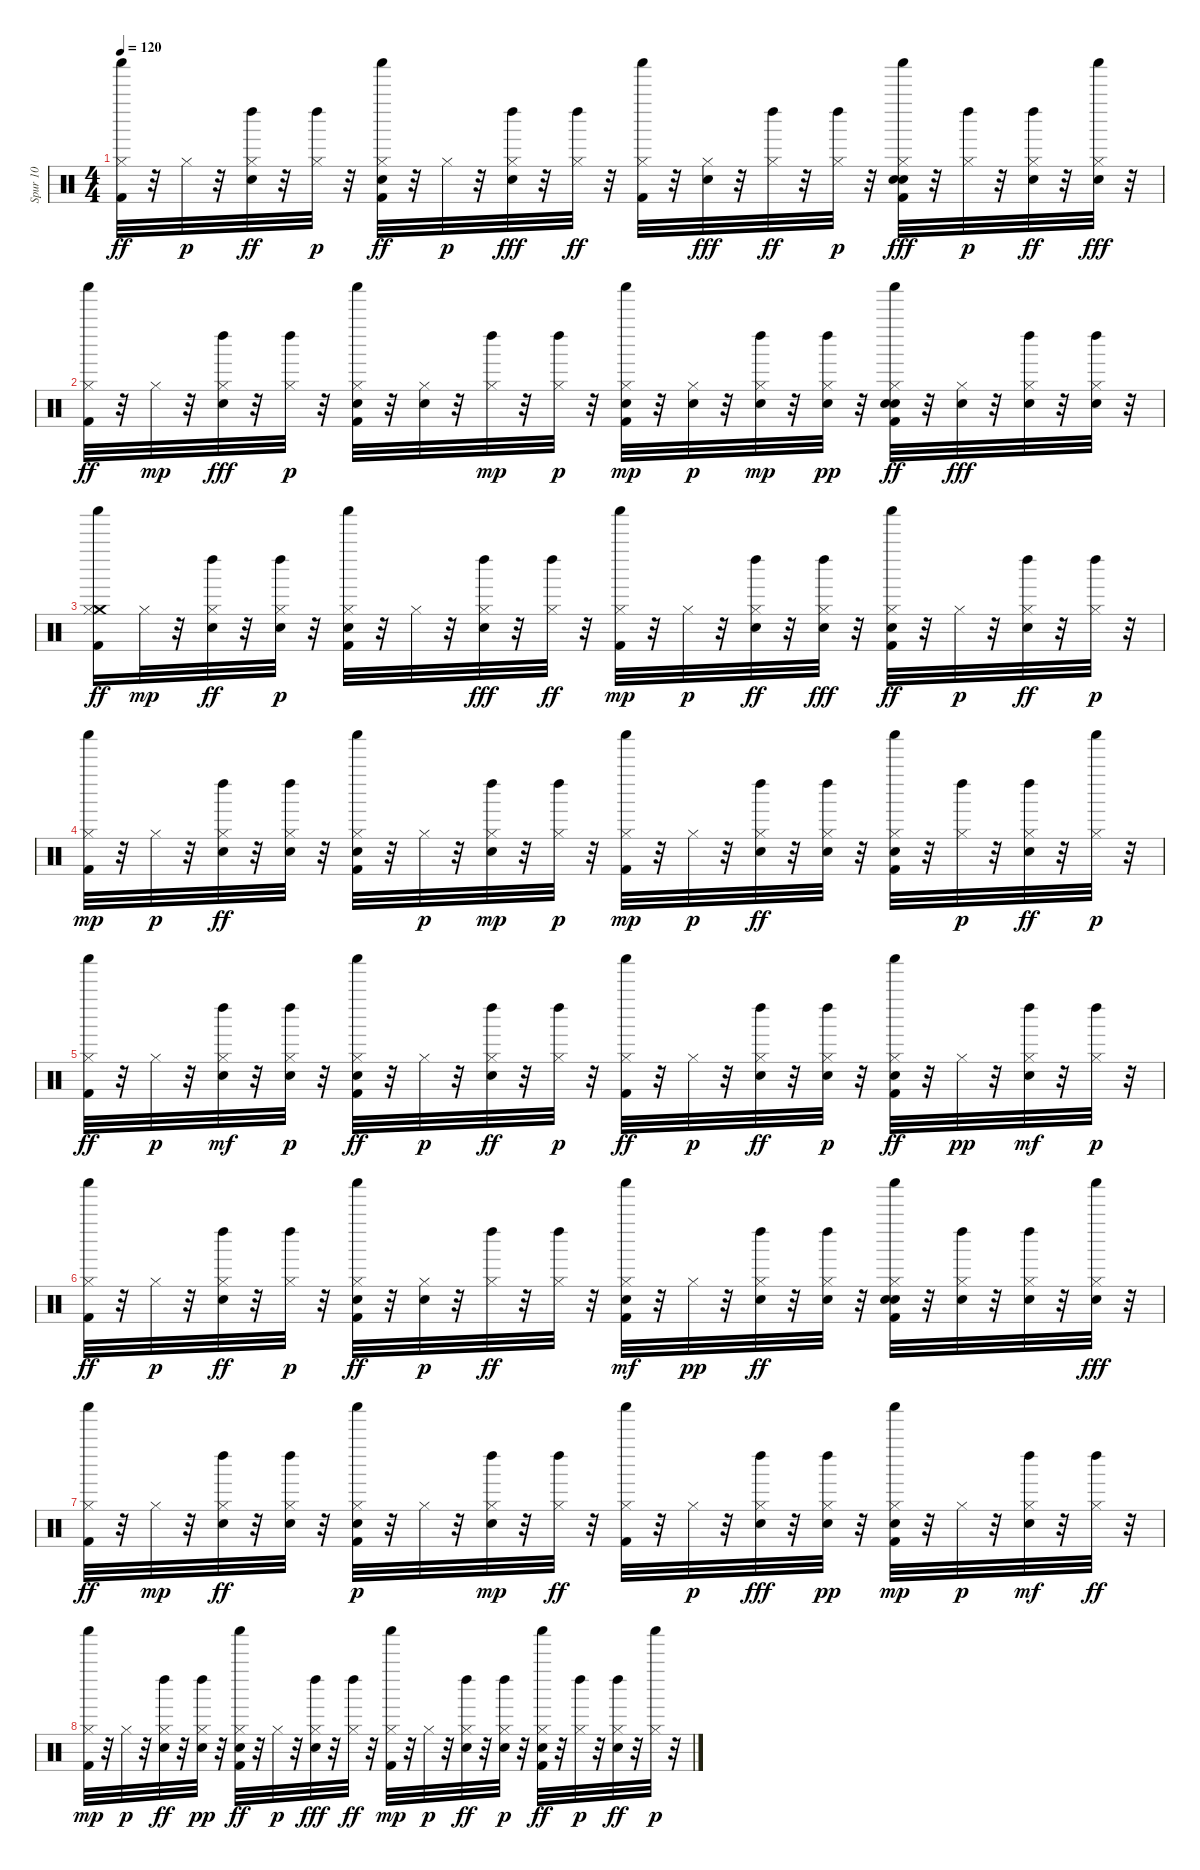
\track ("Spur 10" "Spur 10") {instrument percussion}
\staff {score}
\articulation defaults
\ts (4 4)
\tempo 120
\clef neutral
\ks c
("Hi-Hat (closed)" "Kick (hit) 2" "Shaker (hit)").32{dy ff} r.32 "Hi-Hat (closed)".32{dy p} r.32 ("Electric Snare (hit)" "Hi-Hat (closed)" "Left Maraca (hit)").32{dy ff} r.32 ("Left Maraca (hit)" "Hi-Hat (closed)").32{dy p} r.32 ("Hi-Hat (closed)" "Snare (hit) 2" "Kick (hit) 2" "Shaker (hit)").32{dy ff} r.32 "Hi-Hat (closed)".32{dy p} r.32 ("Left Maraca (hit)" "Hi-Hat (closed)" "Electric Snare (hit)").32{dy fff} r.32 ("Hi-Hat (closed)" "Left Maraca (hit)").32{dy ff} r.32 ("Hi-Hat (closed)" "Shaker (hit)" "Kick (hit) 2").32 r.32 ("Hi-Hat (closed)" "Electric Snare (hit)").32{dy fff} r.32 ("Hi-Hat (closed)" "Left Maraca (hit)").32{dy ff} r.32 ("Left Maraca (hit)" "Hi-Hat (closed)").32{dy p} r.32 ("Kick (hit) 2" "Shaker (hit)" "Snare (hit) 2" "Hi-Hat (closed)" "Electric Snare (hit)").32{dy fff} r.32 ("Hi-Hat (closed)" "Left Maraca (hit)").32{dy p} r.32 ("Electric Snare (hit)" "Left Maraca (hit)" "Hi-Hat (closed)").32{dy ff} r.32 ("Shaker (hit)" "Hi-Hat (closed)" "Electric Snare (hit)").32{dy fff} r.32 |
("Hi-Hat (closed)" "Shaker (hit)" "Kick (hit) 2").32{dy ff} r.32 "Hi-Hat (closed)".32{dy mp} r.32 ("Left Maraca (hit)" "Hi-Hat (closed)" "Electric Snare (hit)").32{dy fff} r.32 ("Hi-Hat (closed)" "Left Maraca (hit)").32{dy p} r.32 ("Kick (hit) 2" "Snare (hit) 2" "Shaker (hit)" "Hi-Hat (closed)").32 r.32 ("Electric Snare (hit)" "Hi-Hat (closed)").32 r.32 ("Hi-Hat (closed)" "Left Maraca (hit)").32{dy mp} r.32 ("Left Maraca (hit)" "Hi-Hat (closed)").32{dy p} r.32 ("Kick (hit) 2" "Electric Snare (hit)" "Shaker (hit)" "Hi-Hat (closed)").32{dy mp} r.32 ("Electric Snare (hit)" "Hi-Hat (closed)").32{dy p} r.32 ("Hi-Hat (closed)" "Electric Snare (hit)" "Left Maraca (hit)").32{dy mp} r.32 ("Hi-Hat (closed)" "Electric Snare (hit)" "Left Maraca (hit)").32{dy pp} r.32 ("Snare (hit) 2" "Hi-Hat (closed)" "Electric Snare (hit)" "Shaker (hit)" "Kick (hit) 2").32{dy ff} r.32 ("Hi-Hat (closed)" "Electric Snare (hit)").32{dy fff} r.32 ("Hi-Hat (closed)" "Left Maraca (hit)" "Electric Snare (hit)").32 r.32 ("Left Maraca (hit)" "Hi-Hat (closed)" "Electric Snare (hit)").32 r.32 |
("Shaker (hit)" "Kick (hit) 2" "Crash medium (hit)" "Hi-Hat (closed)").16{dy ff} "Hi-Hat (closed)".32{dy mp} r.32 ("Electric Snare (hit)" "Left Maraca (hit)" "Hi-Hat (closed)").32{dy ff} r.32 ("Left Maraca (hit)" "Electric Snare (hit)" "Hi-Hat (closed)").32{dy p} r.32 ("Kick (hit) 2" "Snare (hit) 2" "Shaker (hit)" "Hi-Hat (closed)").32 r.32 "Hi-Hat (closed)".32 r.32 ("Left Maraca (hit)" "Hi-Hat (closed)" "Electric Snare (hit)").32{dy fff} r.32 ("Hi-Hat (closed)" "Left Maraca (hit)").32{dy ff} r.32 ("Kick (hit) 2" "Hi-Hat (closed)" "Shaker (hit)").32{dy mp} r.32 "Hi-Hat (closed)".32{dy p} r.32 ("Left Maraca (hit)" "Electric Snare (hit)" "Hi-Hat (closed)").32{dy ff} r.32 ("Hi-Hat (closed)" "Electric Snare (hit)" "Left Maraca (hit)").32{dy fff} r.32 ("Snare (hit) 2" "Shaker (hit)" "Hi-Hat (closed)" "Kick (hit) 2").32{dy ff} r.32 "Hi-Hat (closed)".32{dy p} r.32 ("Left Maraca (hit)" "Electric Snare (hit)" "Hi-Hat (closed)").32{dy ff} r.32 ("Left Maraca (hit)" "Hi-Hat (closed)").32{dy p} r.32 |
("Shaker (hit)" "Kick (hit) 2" "Hi-Hat (closed)").32{dy mp} r.32 "Hi-Hat (closed)".32{dy p} r.32 ("Left Maraca (hit)" "Electric Snare (hit)" "Hi-Hat (closed)").32{dy ff} r.32 ("Electric Snare (hit)" "Hi-Hat (closed)" "Left Maraca (hit)").32 r.32 ("Kick (hit) 2" "Hi-Hat (closed)" "Shaker (hit)" "Snare (hit) 2").32 r.32 "Hi-Hat (closed)".32{dy p} r.32 ("Hi-Hat (closed)" "Electric Snare (hit)" "Left Maraca (hit)").32{dy mp} r.32 ("Left Maraca (hit)" "Hi-Hat (closed)").32{dy p} r.32 ("Kick (hit) 2" "Hi-Hat (closed)" "Shaker (hit)").32{dy mp} r.32 "Hi-Hat (closed)".32{dy p} r.32 ("Electric Snare (hit)" "Left Maraca (hit)" "Hi-Hat (closed)").32{dy ff} r.32 ("Left Maraca (hit)" "Hi-Hat (closed)" "Electric Snare (hit)").32 r.32 ("Hi-Hat (closed)" "Kick (hit) 2" "Shaker (hit)" "Snare (hit) 2").32 r.32 ("Hi-Hat (closed)" "Left Maraca (hit)").32{dy p} r.32 ("Left Maraca (hit)" "Electric Snare (hit)" "Hi-Hat (closed)").32{dy ff} r.32 ("Hi-Hat (closed)" "Shaker (hit)").32{dy p} r.32 |
("Shaker (hit)" "Hi-Hat (closed)" "Kick (hit) 2").32{dy ff} r.32 "Hi-Hat (closed)".32{dy p} r.32 ("Hi-Hat (closed)" "Electric Snare (hit)" "Left Maraca (hit)").32{dy mf} r.32 ("Left Maraca (hit)" "Electric Snare (hit)" "Hi-Hat (closed)").32{dy p} r.32 ("Shaker (hit)" "Snare (hit) 2" "Kick (hit) 2" "Hi-Hat (closed)").32{dy ff} r.32 "Hi-Hat (closed)".32{dy p} r.32 ("Left Maraca (hit)" "Electric Snare (hit)" "Hi-Hat (closed)").32{dy ff} r.32 ("Left Maraca (hit)" "Hi-Hat (closed)").32{dy p} r.32 ("Hi-Hat (closed)" "Kick (hit) 2" "Shaker (hit)").32{dy ff} r.32 "Hi-Hat (closed)".32{dy p} r.32 ("Electric Snare (hit)" "Left Maraca (hit)" "Hi-Hat (closed)").32{dy ff} r.32 ("Electric Snare (hit)" "Left Maraca (hit)" "Hi-Hat (closed)").32{dy p} r.32 ("Shaker (hit)" "Hi-Hat (closed)" "Kick (hit) 2" "Snare (hit) 2").32{dy ff} r.32 "Hi-Hat (closed)".32{dy pp} r.32 ("Electric Snare (hit)" "Hi-Hat (closed)" "Left Maraca (hit)").32{dy mf} r.32 ("Left Maraca (hit)" "Hi-Hat (closed)").32{dy p} r.32 |
("Shaker (hit)" "Kick (hit) 2" "Hi-Hat (closed)").32{dy ff} r.32 "Hi-Hat (closed)".32{dy p} r.32 ("Left Maraca (hit)" "Electric Snare (hit)" "Hi-Hat (closed)").32{dy ff} r.32 ("Left Maraca (hit)" "Hi-Hat (closed)").32{dy p} r.32 ("Snare (hit) 2" "Kick (hit) 2" "Shaker (hit)" "Hi-Hat (closed)").32{dy ff} r.32 ("Electric Snare (hit)" "Hi-Hat (closed)").32{dy p} r.32 ("Left Maraca (hit)" "Hi-Hat (closed)").32{dy ff} r.32 ("Hi-Hat (closed)" "Left Maraca (hit)").32 r.32 ("Kick (hit) 2" "Electric Snare (hit)" "Hi-Hat (closed)" "Shaker (hit)").32{dy mf} r.32 "Hi-Hat (closed)".32{dy pp} r.32 ("Hi-Hat (closed)" "Left Maraca (hit)" "Electric Snare (hit)").32{dy ff} r.32 ("Hi-Hat (closed)" "Electric Snare (hit)" "Left Maraca (hit)").32 r.32 ("Electric Snare (hit)" "Kick (hit) 2" "Hi-Hat (closed)" "Shaker (hit)" "Snare (hit) 2").32 r.32 ("Hi-Hat (closed)" "Electric Snare (hit)" "Left Maraca (hit)").32 r.32 ("Electric Snare (hit)" "Hi-Hat (closed)" "Left Maraca (hit)").32 r.32 ("Shaker (hit)" "Electric Snare (hit)" "Hi-Hat (closed)").32{dy fff} r.32 |
("Shaker (hit)" "Kick (hit) 2" "Hi-Hat (closed)").32{dy ff} r.32 "Hi-Hat (closed)".32{dy mp} r.32 ("Electric Snare (hit)" "Left Maraca (hit)" "Hi-Hat (closed)").32{dy ff} r.32 ("Left Maraca (hit)" "Hi-Hat (closed)" "Electric Snare (hit)").32 r.32 ("Kick (hit) 2" "Snare (hit) 2" "Hi-Hat (closed)" "Shaker (hit)").32{dy p} r.32 "Hi-Hat (closed)".32 r.32 ("Hi-Hat (closed)" "Electric Snare (hit)" "Left Maraca (hit)").32{dy mp} r.32 ("Hi-Hat (closed)" "Left Maraca (hit)").32{dy ff} r.32 ("Shaker (hit)" "Hi-Hat (closed)" "Kick (hit) 2").32 r.32 "Hi-Hat (closed)".32{dy p} r.32 ("Left Maraca (hit)" "Hi-Hat (closed)" "Electric Snare (hit)").32{dy fff} r.32 ("Electric Snare (hit)" "Hi-Hat (closed)" "Left Maraca (hit)").32{dy pp} r.32 ("Snare (hit) 2" "Kick (hit) 2" "Shaker (hit)" "Hi-Hat (closed)").32{dy mp} r.32 "Hi-Hat (closed)".32{dy p} r.32 ("Electric Snare (hit)" "Hi-Hat (closed)" "Left Maraca (hit)").32{dy mf} r.32 ("Hi-Hat (closed)" "Left Maraca (hit)").32{dy ff} r.32 |
("Kick (hit) 2" "Hi-Hat (closed)" "Shaker (hit)").32{dy mp} r.32 "Hi-Hat (closed)".32{dy p} r.32 ("Electric Snare (hit)" "Hi-Hat (closed)" "Left Maraca (hit)").32{dy ff} r.32 ("Electric Snare (hit)" "Left Maraca (hit)" "Hi-Hat (closed)").32{dy pp} r.32 ("Hi-Hat (closed)" "Kick (hit) 2" "Shaker (hit)" "Snare (hit) 2").32{dy ff} r.32 "Hi-Hat (closed)".32{dy p} r.32 ("Hi-Hat (closed)" "Left Maraca (hit)" "Electric Snare (hit)").32{dy fff} r.32 ("Hi-Hat (closed)" "Left Maraca (hit)").32{dy ff} r.32 ("Shaker (hit)" "Kick (hit) 2" "Hi-Hat (closed)").32{dy mp} r.32 "Hi-Hat (closed)".32{dy p} r.32 ("Electric Snare (hit)" "Hi-Hat (closed)" "Left Maraca (hit)").32{dy ff} r.32 ("Electric Snare (hit)" "Left Maraca (hit)" "Hi-Hat (closed)").32{dy p} r.32 ("Hi-Hat (closed)" "Shaker (hit)" "Kick (hit) 2" "Snare (hit) 2").32{dy ff} r.32 ("Left Maraca (hit)" "Hi-Hat (closed)").32{dy p} r.32 ("Electric Snare (hit)" "Left Maraca (hit)" "Hi-Hat (closed)").32{dy ff} r.32 ("Hi-Hat (closed)" "Shaker (hit)").32{dy p} r.32
